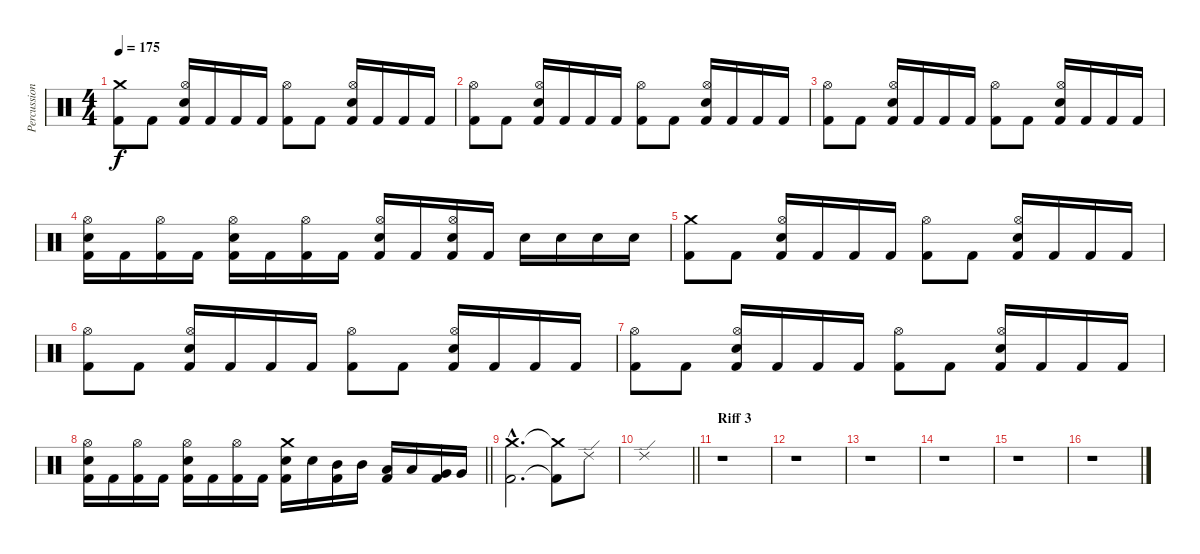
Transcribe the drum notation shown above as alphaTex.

\track ("Percussion" "Percussion") {instrument percussion}
\staff {score}
\articulation defaults
\ts (4 4)
\tempo 175
\clef neutral
\ks c
("Crash medium (hit)" "Kick (hit) 2").8{dy f} "Kick (hit) 2".8 ("Kick (hit) 2" "Hi-Hat (open)" "Snare (hit) 2").16 "Kick (hit) 2".16 "Kick (hit) 2".16 "Kick (hit) 2".16 ("Hi-Hat (open)" "Kick (hit) 2").8 "Kick (hit) 2".8 ("Kick (hit) 2" "Hi-Hat (open)" "Snare (hit) 2").16 "Kick (hit) 2".16 "Kick (hit) 2".16 "Kick (hit) 2".16 |
("Hi-Hat (open)" "Kick (hit) 2").8 "Kick (hit) 2".8 ("Kick (hit) 2" "Hi-Hat (open)" "Snare (hit) 2").16 "Kick (hit) 2".16 "Kick (hit) 2".16 "Kick (hit) 2".16 ("Hi-Hat (open)" "Kick (hit) 2").8 "Kick (hit) 2".8 ("Kick (hit) 2" "Hi-Hat (open)" "Snare (hit) 2").16 "Kick (hit) 2".16 "Kick (hit) 2".16 "Kick (hit) 2".16 |
("Hi-Hat (open)" "Kick (hit) 2").8 "Kick (hit) 2".8 ("Kick (hit) 2" "Hi-Hat (open)" "Snare (hit) 2").16 "Kick (hit) 2".16 "Kick (hit) 2".16 "Kick (hit) 2".16 ("Hi-Hat (open)" "Kick (hit) 2").8 "Kick (hit) 2".8 ("Kick (hit) 2" "Hi-Hat (open)" "Snare (hit) 2").16 "Kick (hit) 2".16 "Kick (hit) 2".16 "Kick (hit) 2".16 |
("Kick (hit) 2" "Hi-Hat (open)" "Snare (hit) 2").16 "Kick (hit) 2".16 ("Hi-Hat (open)" "Kick (hit) 2").16 "Kick (hit) 2".16 ("Kick (hit) 2" "Hi-Hat (open)" "Snare (hit) 2").16 "Kick (hit) 2".16 ("Hi-Hat (open)" "Kick (hit) 2").16 "Kick (hit) 2".16 ("Kick (hit) 2" "Hi-Hat (open)" "Snare (hit) 2").16 "Kick (hit) 2".16 ("Kick (hit) 2" "Hi-Hat (open)" "Snare (hit) 2").16 "Kick (hit) 2".16 "Snare (hit) 2".16 "Snare (hit) 2".16 "Snare (hit) 2".16 "Snare (hit) 2".16 |
("Crash medium (hit)" "Kick (hit) 2").8 "Kick (hit) 2".8 ("Kick (hit) 2" "Hi-Hat (open)" "Snare (hit) 2").16 "Kick (hit) 2".16 "Kick (hit) 2".16 "Kick (hit) 2".16 ("Hi-Hat (open)" "Kick (hit) 2").8 "Kick (hit) 2".8 ("Kick (hit) 2" "Hi-Hat (open)" "Snare (hit) 2").16 "Kick (hit) 2".16 "Kick (hit) 2".16 "Kick (hit) 2".16 |
("Hi-Hat (open)" "Kick (hit) 2").8 "Kick (hit) 2".8 ("Kick (hit) 2" "Hi-Hat (open)" "Snare (hit) 2").16 "Kick (hit) 2".16 "Kick (hit) 2".16 "Kick (hit) 2".16 ("Hi-Hat (open)" "Kick (hit) 2").8 "Kick (hit) 2".8 ("Kick (hit) 2" "Hi-Hat (open)" "Snare (hit) 2").16 "Kick (hit) 2".16 "Kick (hit) 2".16 "Kick (hit) 2".16 |
("Hi-Hat (open)" "Kick (hit) 2").8 "Kick (hit) 2".8 ("Kick (hit) 2" "Hi-Hat (open)" "Snare (hit) 2").16 "Kick (hit) 2".16 "Kick (hit) 2".16 "Kick (hit) 2".16 ("Hi-Hat (open)" "Kick (hit) 2").8 "Kick (hit) 2".8 ("Kick (hit) 2" "Hi-Hat (open)" "Snare (hit) 2").16 "Kick (hit) 2".16 "Kick (hit) 2".16 "Kick (hit) 2".16 |
\barLineRight lightlight
("Kick (hit) 2" "Hi-Hat (open)" "Snare (hit) 2").16 "Kick (hit) 2".16 ("Hi-Hat (open)" "Kick (hit) 2").16 "Kick (hit) 2".16 ("Kick (hit) 2" "Hi-Hat (open)" "Snare (hit) 2").16 "Kick (hit) 2".16 ("Hi-Hat (open)" "Kick (hit) 2").16 "Kick (hit) 2".16 ("Kick (hit) 2" "Crash medium (hit)" "Snare (hit) 2").16 "Snare (hit) 2".16 ("Kick (hit) 2" "Mid Tom (hit)").16 "Mid Tom (hit)".16 ("Kick (hit) 2" "Low Tom (hit)").16 "Low Tom (hit)".16 ("Kick (hit) 2" "Very Low Tom (hit)").16 "Very Low Tom (hit)".16 |
("Crash medium (hit)"{hac} "Kick (hit) 2"{hac}).2{d} ("Crash medium (hit)"{t} "Kick (hit) 2"{t}).8 "Ride (edge) 2".8 |
\barLineRight lightlight "Ride (edge) 2".1
|
\section ("" "Riff 3")
r.1 |
r.1 |
r.1 |
r.1 |
r.1 |
r.1
